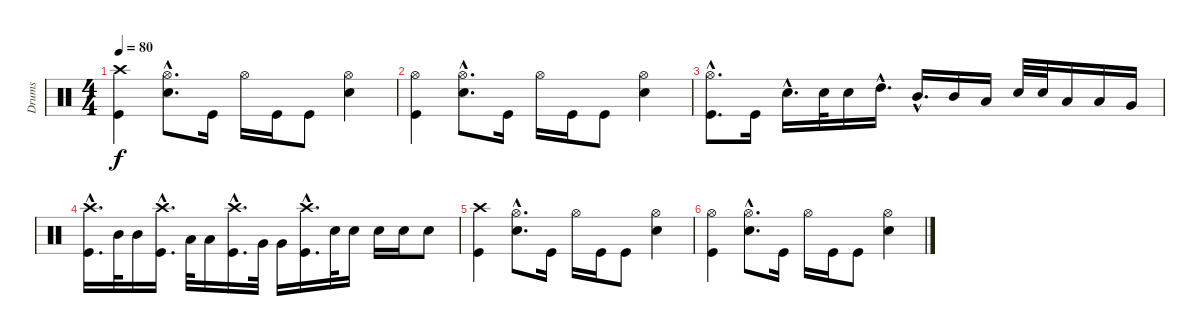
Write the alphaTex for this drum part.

\track ("Drums" "Drums") {instrument percussion}
\staff {score}
\articulation defaults
\ts (4 4)
\tempo 80
\clef neutral
\ks c
("Crash high (hit)" "Kick (hit)").4{dy f volume 8} ("Hi-Hat (open)"{hac} "Electric Snare (hit)"{hac}).8{d} "Kick (hit)".16 "Hi-Hat (open)".16 "Kick (hit)".16 "Kick (hit)".8 ("Hi-Hat (open)" "Electric Snare (hit)").4 |
("Hi-Hat (open)" "Kick (hit)").4 ("Hi-Hat (open)"{hac} "Electric Snare (hit)"{hac}).8{d} "Kick (hit)".16 "Hi-Hat (open)".16 "Kick (hit)".16 "Kick (hit)".8 ("Hi-Hat (open)" "Electric Snare (hit)").4 |
("Hi-Hat (open)"{hac} "Kick (hit)"{hac}).8{d} "Kick (hit)".16 "Electric Snare (hit)"{hac}.16{d} "Electric Snare (hit)".32 "Electric Snare (hit)".16 "High Tom (hit)"{hac}.16{d} "Mid Tom (hit)"{hac}.16{d} "Mid Tom (hit)".16 "Low Tom (hit)".16 "Electric Snare (hit)".32 "Electric Snare (hit)".32 "Low Tom (hit)".16 "Low Tom (hit)".16 "Very Low Tom (hit)".16 |
("Crash high (hit)"{hac} "Kick (hit)"{hac}).16{d} "Mid Tom (hit)".32 "Mid Tom (hit)".16 ("Crash high (hit)"{hac} "Kick (hit)"{hac}).16{d} "Low Tom (hit)".32 "Low Tom (hit)".16 ("Crash high (hit)"{hac} "Kick (hit)"{hac}).16{d} "Very Low Tom (hit)".32 "Very Low Tom (hit)".16 ("Crash high (hit)"{hac} "Kick (hit)"{hac}).16{d} "Electric Snare (hit)".32 "Electric Snare (hit)".16 "Electric Snare (hit)".16 "Electric Snare (hit)".16 "Electric Snare (hit)".8 |
("Crash high (hit)" "Kick (hit)").4{volume 0} ("Hi-Hat (open)"{hac} "Electric Snare (hit)"{hac}).8{d} "Kick (hit)".16 "Hi-Hat (open)".16 "Kick (hit)".16 "Kick (hit)".8 ("Hi-Hat (open)" "Electric Snare (hit)").4 |
("Hi-Hat (open)" "Kick (hit)").4 ("Hi-Hat (open)"{hac} "Electric Snare (hit)"{hac}).8{d} "Kick (hit)".16 "Hi-Hat (open)".16 "Kick (hit)".16 "Kick (hit)".8 ("Hi-Hat (open)" "Electric Snare (hit)").4
